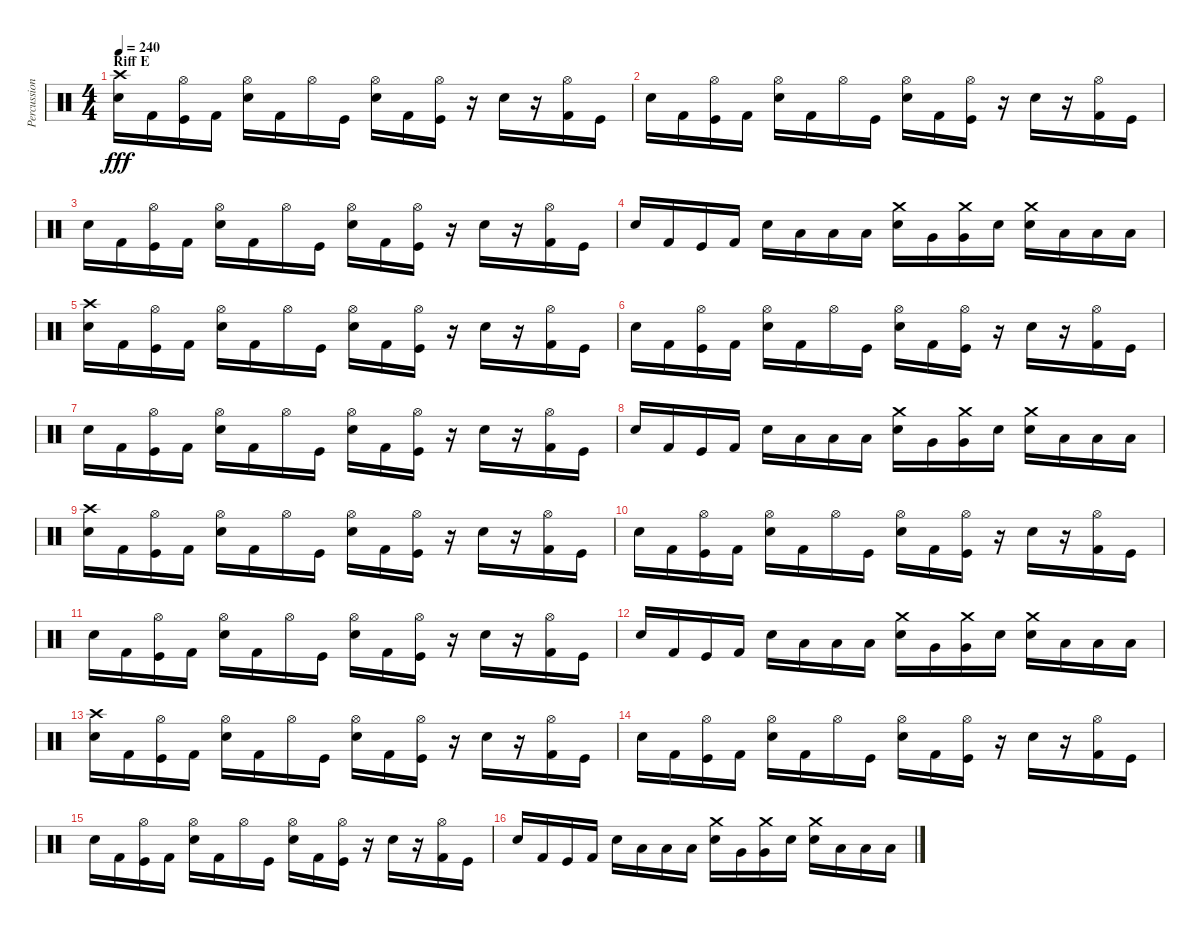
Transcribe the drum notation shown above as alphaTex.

\track ("Percussion" "Percussion") {instrument percussion}
\staff {score}
\articulation defaults
\ts (4 4)
\section ("" "Riff E")
\tempo 240
\clef neutral
\ks c
("Snare (hit) 2" "Crash high (hit)").16{dy fff} "Kick (hit) 2".16 ("Kick (hit)" "Hi-Hat (open)").16 "Kick (hit) 2".16 ("Snare (hit) 2" "Hi-Hat (open)").16 "Kick (hit) 2".16 "Hi-Hat (open)".16 "Kick (hit)".16 ("Snare (hit) 2" "Hi-Hat (open)").16 "Kick (hit) 2".16 ("Kick (hit)" "Hi-Hat (open)").16 r.16 "Snare (hit) 2".16 r.16 ("Kick (hit) 2" "Hi-Hat (open)").16 "Kick (hit)".16 |
"Snare (hit) 2".16 "Kick (hit) 2".16 ("Kick (hit)" "Hi-Hat (open)").16 "Kick (hit) 2".16 ("Snare (hit) 2" "Hi-Hat (open)").16 "Kick (hit) 2".16 "Hi-Hat (open)".16 "Kick (hit)".16 ("Snare (hit) 2" "Hi-Hat (open)").16 "Kick (hit) 2".16 ("Kick (hit)" "Hi-Hat (open)").16 r.16 "Snare (hit) 2".16 r.16 ("Kick (hit) 2" "Hi-Hat (open)").16 "Kick (hit)".16 |
"Snare (hit) 2".16 "Kick (hit) 2".16 ("Kick (hit)" "Hi-Hat (open)").16 "Kick (hit) 2".16 ("Snare (hit) 2" "Hi-Hat (open)").16 "Kick (hit) 2".16 "Hi-Hat (open)".16 "Kick (hit)".16 ("Snare (hit) 2" "Hi-Hat (open)").16 "Kick (hit) 2".16 ("Kick (hit)" "Hi-Hat (open)").16 r.16 "Snare (hit) 2".16 r.16 ("Kick (hit) 2" "Hi-Hat (open)").16 "Kick (hit)".16 |
"Snare (hit) 2".16 "Kick (hit) 2".16 "Kick (hit)".16 "Kick (hit) 2".16 "Snare (hit) 2".16 "Low Floor Tom (hit)".16 "Low Floor Tom (hit)".16 "Low Floor Tom (hit)".16 ("Snare (hit) 2" "Crash medium (hit)").16 "Very Low Tom (hit)".16 ("Very Low Tom (hit)" "Crash medium (hit)").16 "Snare (hit) 2".16 ("Snare (hit) 2" "Crash medium (hit)").16 "Low Tom (hit)".16 "Low Tom (hit)".16 "Low Tom (hit)".16 |
("Snare (hit) 2" "Crash high (hit)").16 "Kick (hit) 2".16 ("Kick (hit)" "Hi-Hat (open)").16 "Kick (hit) 2".16 ("Snare (hit) 2" "Hi-Hat (open)").16 "Kick (hit) 2".16 "Hi-Hat (open)".16 "Kick (hit)".16 ("Snare (hit) 2" "Hi-Hat (open)").16 "Kick (hit) 2".16 ("Kick (hit)" "Hi-Hat (open)").16 r.16 "Snare (hit) 2".16 r.16 ("Kick (hit) 2" "Hi-Hat (open)").16 "Kick (hit)".16 |
"Snare (hit) 2".16 "Kick (hit) 2".16 ("Kick (hit)" "Hi-Hat (open)").16 "Kick (hit) 2".16 ("Snare (hit) 2" "Hi-Hat (open)").16 "Kick (hit) 2".16 "Hi-Hat (open)".16 "Kick (hit)".16 ("Snare (hit) 2" "Hi-Hat (open)").16 "Kick (hit) 2".16 ("Kick (hit)" "Hi-Hat (open)").16 r.16 "Snare (hit) 2".16 r.16 ("Kick (hit) 2" "Hi-Hat (open)").16 "Kick (hit)".16 |
"Snare (hit) 2".16 "Kick (hit) 2".16 ("Kick (hit)" "Hi-Hat (open)").16 "Kick (hit) 2".16 ("Snare (hit) 2" "Hi-Hat (open)").16 "Kick (hit) 2".16 "Hi-Hat (open)".16 "Kick (hit)".16 ("Snare (hit) 2" "Hi-Hat (open)").16 "Kick (hit) 2".16 ("Kick (hit)" "Hi-Hat (open)").16 r.16 "Snare (hit) 2".16 r.16 ("Kick (hit) 2" "Hi-Hat (open)").16 "Kick (hit)".16 |
"Snare (hit) 2".16 "Kick (hit) 2".16 "Kick (hit)".16 "Kick (hit) 2".16 "Snare (hit) 2".16 "Low Floor Tom (hit)".16 "Low Floor Tom (hit)".16 "Low Floor Tom (hit)".16 ("Snare (hit) 2" "Crash medium (hit)").16 "Very Low Tom (hit)".16 ("Very Low Tom (hit)" "Crash medium (hit)").16 "Snare (hit) 2".16 ("Snare (hit) 2" "Crash medium (hit)").16 "Low Tom (hit)".16 "Low Tom (hit)".16 "Low Tom (hit)".16 |
("Snare (hit) 2" "Crash high (hit)").16 "Kick (hit) 2".16 ("Kick (hit)" "Hi-Hat (open)").16 "Kick (hit) 2".16 ("Snare (hit) 2" "Hi-Hat (open)").16 "Kick (hit) 2".16 "Hi-Hat (open)".16 "Kick (hit)".16 ("Snare (hit) 2" "Hi-Hat (open)").16 "Kick (hit) 2".16 ("Kick (hit)" "Hi-Hat (open)").16 r.16 "Snare (hit) 2".16 r.16 ("Kick (hit) 2" "Hi-Hat (open)").16 "Kick (hit)".16 |
"Snare (hit) 2".16 "Kick (hit) 2".16 ("Kick (hit)" "Hi-Hat (open)").16 "Kick (hit) 2".16 ("Snare (hit) 2" "Hi-Hat (open)").16 "Kick (hit) 2".16 "Hi-Hat (open)".16 "Kick (hit)".16 ("Snare (hit) 2" "Hi-Hat (open)").16 "Kick (hit) 2".16 ("Kick (hit)" "Hi-Hat (open)").16 r.16 "Snare (hit) 2".16 r.16 ("Kick (hit) 2" "Hi-Hat (open)").16 "Kick (hit)".16 |
"Snare (hit) 2".16 "Kick (hit) 2".16 ("Kick (hit)" "Hi-Hat (open)").16 "Kick (hit) 2".16 ("Snare (hit) 2" "Hi-Hat (open)").16 "Kick (hit) 2".16 "Hi-Hat (open)".16 "Kick (hit)".16 ("Snare (hit) 2" "Hi-Hat (open)").16 "Kick (hit) 2".16 ("Kick (hit)" "Hi-Hat (open)").16 r.16 "Snare (hit) 2".16 r.16 ("Kick (hit) 2" "Hi-Hat (open)").16 "Kick (hit)".16 |
"Snare (hit) 2".16 "Kick (hit) 2".16 "Kick (hit)".16 "Kick (hit) 2".16 "Snare (hit) 2".16 "Low Floor Tom (hit)".16 "Low Floor Tom (hit)".16 "Low Floor Tom (hit)".16 ("Snare (hit) 2" "Crash medium (hit)").16 "Very Low Tom (hit)".16 ("Very Low Tom (hit)" "Crash medium (hit)").16 "Snare (hit) 2".16 ("Snare (hit) 2" "Crash medium (hit)").16 "Low Tom (hit)".16 "Low Tom (hit)".16 "Low Tom (hit)".16 |
("Snare (hit) 2" "Crash high (hit)").16 "Kick (hit) 2".16 ("Kick (hit)" "Hi-Hat (open)").16 "Kick (hit) 2".16 ("Snare (hit) 2" "Hi-Hat (open)").16 "Kick (hit) 2".16 "Hi-Hat (open)".16 "Kick (hit)".16 ("Snare (hit) 2" "Hi-Hat (open)").16 "Kick (hit) 2".16 ("Kick (hit)" "Hi-Hat (open)").16 r.16 "Snare (hit) 2".16 r.16 ("Kick (hit) 2" "Hi-Hat (open)").16 "Kick (hit)".16 |
"Snare (hit) 2".16 "Kick (hit) 2".16 ("Kick (hit)" "Hi-Hat (open)").16 "Kick (hit) 2".16 ("Snare (hit) 2" "Hi-Hat (open)").16 "Kick (hit) 2".16 "Hi-Hat (open)".16 "Kick (hit)".16 ("Snare (hit) 2" "Hi-Hat (open)").16 "Kick (hit) 2".16 ("Kick (hit)" "Hi-Hat (open)").16 r.16 "Snare (hit) 2".16 r.16 ("Kick (hit) 2" "Hi-Hat (open)").16 "Kick (hit)".16 |
"Snare (hit) 2".16 "Kick (hit) 2".16 ("Kick (hit)" "Hi-Hat (open)").16 "Kick (hit) 2".16 ("Snare (hit) 2" "Hi-Hat (open)").16 "Kick (hit) 2".16 "Hi-Hat (open)".16 "Kick (hit)".16 ("Snare (hit) 2" "Hi-Hat (open)").16 "Kick (hit) 2".16 ("Kick (hit)" "Hi-Hat (open)").16 r.16 "Snare (hit) 2".16 r.16 ("Kick (hit) 2" "Hi-Hat (open)").16 "Kick (hit)".16 |
"Snare (hit) 2".16 "Kick (hit) 2".16 "Kick (hit)".16 "Kick (hit) 2".16 "Snare (hit) 2".16 "Low Floor Tom (hit)".16 "Low Floor Tom (hit)".16 "Low Floor Tom (hit)".16 ("Snare (hit) 2" "Crash medium (hit)").16 "Very Low Tom (hit)".16 ("Very Low Tom (hit)" "Crash medium (hit)").16 "Snare (hit) 2".16 ("Snare (hit) 2" "Crash medium (hit)").16 "Low Tom (hit)".16 "Low Tom (hit)".16 "Low Tom (hit)".16
